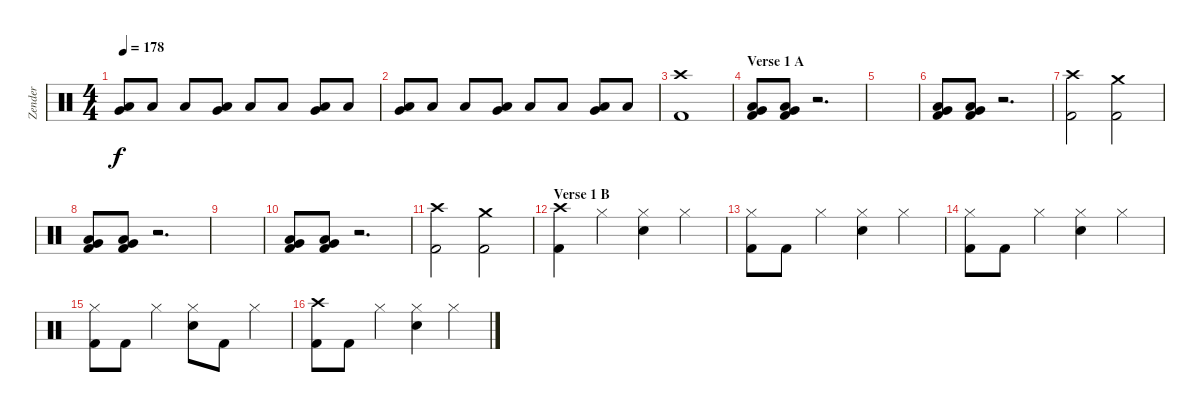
\track ("Zender" "Zender") {instrument percussion}
\staff {score}
\articulation defaults
\ts (4 4)
\tempo 178
\clef neutral
\ks c
("Very Low Tom (hit)" "Low Floor Tom (hit)").8{dy f} "Low Floor Tom (hit)".8 "Low Floor Tom (hit)".8 ("Very Low Tom (hit)" "Low Floor Tom (hit)").8 "Low Floor Tom (hit)".8 "Low Floor Tom (hit)".8 ("Very Low Tom (hit)" "Low Floor Tom (hit)").8 "Low Floor Tom (hit)".8 |
("Very Low Tom (hit)" "Low Floor Tom (hit)").8 "Low Floor Tom (hit)".8 "Low Floor Tom (hit)".8 ("Very Low Tom (hit)" "Low Floor Tom (hit)").8 "Low Floor Tom (hit)".8 "Low Floor Tom (hit)".8 ("Very Low Tom (hit)" "Low Floor Tom (hit)").8 "Low Floor Tom (hit)".8 |
("Crash high (hit)" "Kick (hit) 2").1 |
\section ("" "Verse 1 A")
("Low Floor Tom (hit)" "Very Low Tom (hit)" "Kick (hit) 2").8 ("Low Floor Tom (hit)" "Very Low Tom (hit)" "Kick (hit) 2").8 r.2{d} |
|
("Low Floor Tom (hit)" "Very Low Tom (hit)" "Kick (hit) 2").8 ("Low Floor Tom (hit)" "Very Low Tom (hit)" "Kick (hit) 2").8 r.2{d} |
("Crash high (hit)" "Kick (hit) 2").2 ("Crash medium (hit)" "Kick (hit) 2").2 |
("Low Floor Tom (hit)" "Very Low Tom (hit)" "Kick (hit) 2").8 ("Low Floor Tom (hit)" "Very Low Tom (hit)" "Kick (hit) 2").8 r.2{d} |
|
("Low Floor Tom (hit)" "Very Low Tom (hit)" "Kick (hit) 2").8 ("Low Floor Tom (hit)" "Very Low Tom (hit)" "Kick (hit) 2").8 r.2{d} |
("Crash high (hit)" "Kick (hit) 2").2 ("Crash medium (hit)" "Kick (hit) 2").2 |
\section ("" "Verse 1 B")
("Crash high (hit)" "Kick (hit) 2").4 "Hi-Hat (closed)".4 ("Hi-Hat (closed)" "Electric Snare (hit)").4 "Hi-Hat (closed)".4 |
("Hi-Hat (closed)" "Kick (hit) 2").8 "Kick (hit) 2".8 "Hi-Hat (closed)".4 ("Hi-Hat (closed)" "Electric Snare (hit)").4 "Hi-Hat (closed)".4 |
("Hi-Hat (closed)" "Kick (hit) 2").8 "Kick (hit) 2".8 "Hi-Hat (closed)".4 ("Hi-Hat (closed)" "Electric Snare (hit)").4 "Hi-Hat (closed)".4 |
("Hi-Hat (closed)" "Kick (hit) 2").8 "Kick (hit) 2".8 "Hi-Hat (closed)".4 ("Hi-Hat (closed)" "Electric Snare (hit)").8 "Kick (hit) 2".8 "Hi-Hat (closed)".4 |
("Crash high (hit)" "Kick (hit) 2").8 "Kick (hit) 2".8 "Hi-Hat (closed)".4 ("Hi-Hat (closed)" "Electric Snare (hit)").4 "Hi-Hat (closed)".4
